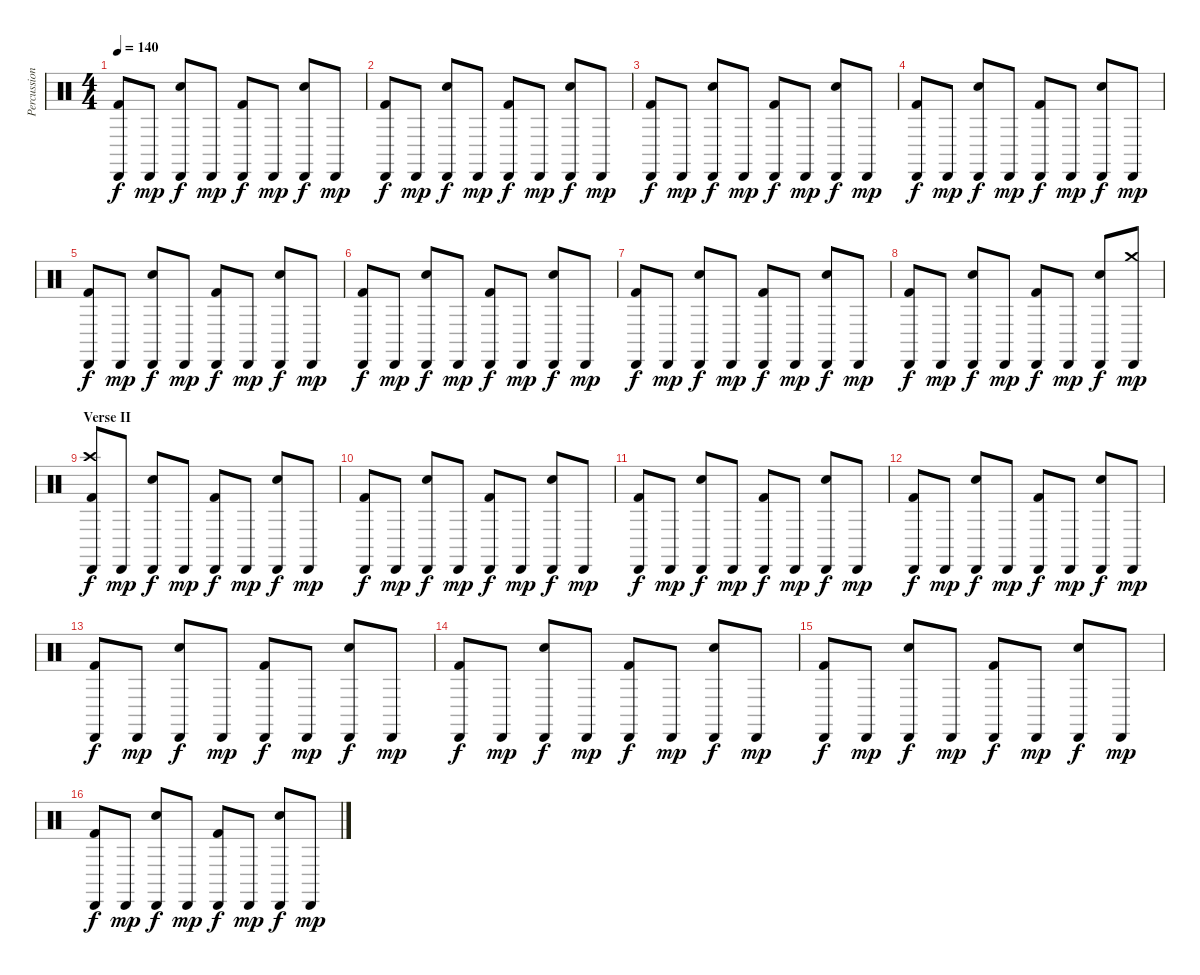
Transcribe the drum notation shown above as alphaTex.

\track ("Percussion" "Percussion") {instrument percussion}
\staff {score}
\articulation defaults
\ts (4 4)
\tempo 140
\clef neutral
\ks c
("Cabasa (hit)" "Kick (hit) 2").8{dy f} "Cabasa (hit)".8{dy mp} ("Cabasa (hit)" "Electric Snare (hit)").8{dy f} "Cabasa (hit)".8{dy mp} ("Cabasa (hit)" "Kick (hit) 2").8{dy f} "Cabasa (hit)".8{dy mp} ("Cabasa (hit)" "Electric Snare (hit)").8{dy f} "Cabasa (hit)".8{dy mp} |
("Cabasa (hit)" "Kick (hit) 2").8{dy f} "Cabasa (hit)".8{dy mp} ("Cabasa (hit)" "Electric Snare (hit)").8{dy f} "Cabasa (hit)".8{dy mp} ("Cabasa (hit)" "Kick (hit) 2").8{dy f} "Cabasa (hit)".8{dy mp} ("Cabasa (hit)" "Electric Snare (hit)").8{dy f} "Cabasa (hit)".8{dy mp} |
("Cabasa (hit)" "Kick (hit) 2").8{dy f} "Cabasa (hit)".8{dy mp} ("Cabasa (hit)" "Electric Snare (hit)").8{dy f} "Cabasa (hit)".8{dy mp} ("Cabasa (hit)" "Kick (hit) 2").8{dy f} "Cabasa (hit)".8{dy mp} ("Cabasa (hit)" "Electric Snare (hit)").8{dy f} "Cabasa (hit)".8{dy mp} |
("Cabasa (hit)" "Kick (hit) 2").8{dy f} "Cabasa (hit)".8{dy mp} ("Cabasa (hit)" "Electric Snare (hit)").8{dy f} "Cabasa (hit)".8{dy mp} ("Cabasa (hit)" "Kick (hit) 2").8{dy f} "Cabasa (hit)".8{dy mp} ("Cabasa (hit)" "Electric Snare (hit)").8{dy f} "Cabasa (hit)".8{dy mp} |
("Cabasa (hit)" "Kick (hit) 2").8{dy f} "Cabasa (hit)".8{dy mp} ("Cabasa (hit)" "Electric Snare (hit)").8{dy f} "Cabasa (hit)".8{dy mp} ("Cabasa (hit)" "Kick (hit) 2").8{dy f} "Cabasa (hit)".8{dy mp} ("Cabasa (hit)" "Electric Snare (hit)").8{dy f} "Cabasa (hit)".8{dy mp} |
("Cabasa (hit)" "Kick (hit) 2").8{dy f} "Cabasa (hit)".8{dy mp} ("Cabasa (hit)" "Electric Snare (hit)").8{dy f} "Cabasa (hit)".8{dy mp} ("Cabasa (hit)" "Kick (hit) 2").8{dy f} "Cabasa (hit)".8{dy mp} ("Cabasa (hit)" "Electric Snare (hit)").8{dy f} "Cabasa (hit)".8{dy mp} |
("Cabasa (hit)" "Kick (hit) 2").8{dy f} "Cabasa (hit)".8{dy mp} ("Cabasa (hit)" "Electric Snare (hit)").8{dy f} "Cabasa (hit)".8{dy mp} ("Cabasa (hit)" "Kick (hit) 2").8{dy f} "Cabasa (hit)".8{dy mp} ("Cabasa (hit)" "Electric Snare (hit)").8{dy f} "Cabasa (hit)".8{dy mp} |
("Cabasa (hit)" "Kick (hit) 2").8{dy f} "Cabasa (hit)".8{dy mp} ("Cabasa (hit)" "Electric Snare (hit)").8{dy f} "Cabasa (hit)".8{dy mp} ("Cabasa (hit)" "Kick (hit) 2").8{dy f} "Cabasa (hit)".8{dy mp} ("Cabasa (hit)" "Electric Snare (hit)").8{dy f} ("Cabasa (hit)" "Crash medium (hit)").8{dy mp} |
\section ("" "Verse II")
("Cabasa (hit)" "Crash high (hit)" "Kick (hit) 2").8{dy f} "Cabasa (hit)".8{dy mp} ("Cabasa (hit)" "Electric Snare (hit)").8{dy f} "Cabasa (hit)".8{dy mp} ("Cabasa (hit)" "Kick (hit) 2").8{dy f} "Cabasa (hit)".8{dy mp} ("Cabasa (hit)" "Electric Snare (hit)").8{dy f} "Cabasa (hit)".8{dy mp} |
("Cabasa (hit)" "Kick (hit) 2").8{dy f} "Cabasa (hit)".8{dy mp} ("Cabasa (hit)" "Electric Snare (hit)").8{dy f} "Cabasa (hit)".8{dy mp} ("Cabasa (hit)" "Kick (hit) 2").8{dy f} "Cabasa (hit)".8{dy mp} ("Cabasa (hit)" "Electric Snare (hit)").8{dy f} "Cabasa (hit)".8{dy mp} |
("Cabasa (hit)" "Kick (hit) 2").8{dy f} "Cabasa (hit)".8{dy mp} ("Cabasa (hit)" "Electric Snare (hit)").8{dy f} "Cabasa (hit)".8{dy mp} ("Cabasa (hit)" "Kick (hit) 2").8{dy f} "Cabasa (hit)".8{dy mp} ("Cabasa (hit)" "Electric Snare (hit)").8{dy f} "Cabasa (hit)".8{dy mp} |
("Cabasa (hit)" "Kick (hit) 2").8{dy f} "Cabasa (hit)".8{dy mp} ("Cabasa (hit)" "Electric Snare (hit)").8{dy f} "Cabasa (hit)".8{dy mp} ("Cabasa (hit)" "Kick (hit) 2").8{dy f} "Cabasa (hit)".8{dy mp} ("Cabasa (hit)" "Electric Snare (hit)").8{dy f} "Cabasa (hit)".8{dy mp} |
("Cabasa (hit)" "Kick (hit) 2").8{dy f} "Cabasa (hit)".8{dy mp} ("Cabasa (hit)" "Electric Snare (hit)").8{dy f} "Cabasa (hit)".8{dy mp} ("Cabasa (hit)" "Kick (hit) 2").8{dy f} "Cabasa (hit)".8{dy mp} ("Cabasa (hit)" "Electric Snare (hit)").8{dy f} "Cabasa (hit)".8{dy mp} |
("Cabasa (hit)" "Kick (hit) 2").8{dy f} "Cabasa (hit)".8{dy mp} ("Cabasa (hit)" "Electric Snare (hit)").8{dy f} "Cabasa (hit)".8{dy mp} ("Cabasa (hit)" "Kick (hit) 2").8{dy f} "Cabasa (hit)".8{dy mp} ("Cabasa (hit)" "Electric Snare (hit)").8{dy f} "Cabasa (hit)".8{dy mp} |
("Cabasa (hit)" "Kick (hit) 2").8{dy f} "Cabasa (hit)".8{dy mp} ("Cabasa (hit)" "Electric Snare (hit)").8{dy f} "Cabasa (hit)".8{dy mp} ("Cabasa (hit)" "Kick (hit) 2").8{dy f} "Cabasa (hit)".8{dy mp} ("Cabasa (hit)" "Electric Snare (hit)").8{dy f} "Cabasa (hit)".8{dy mp} |
("Cabasa (hit)" "Kick (hit) 2").8{dy f} "Cabasa (hit)".8{dy mp} ("Cabasa (hit)" "Electric Snare (hit)").8{dy f} "Cabasa (hit)".8{dy mp} ("Cabasa (hit)" "Kick (hit) 2").8{dy f} "Cabasa (hit)".8{dy mp} ("Cabasa (hit)" "Electric Snare (hit)").8{dy f} "Cabasa (hit)".8{dy mp}
